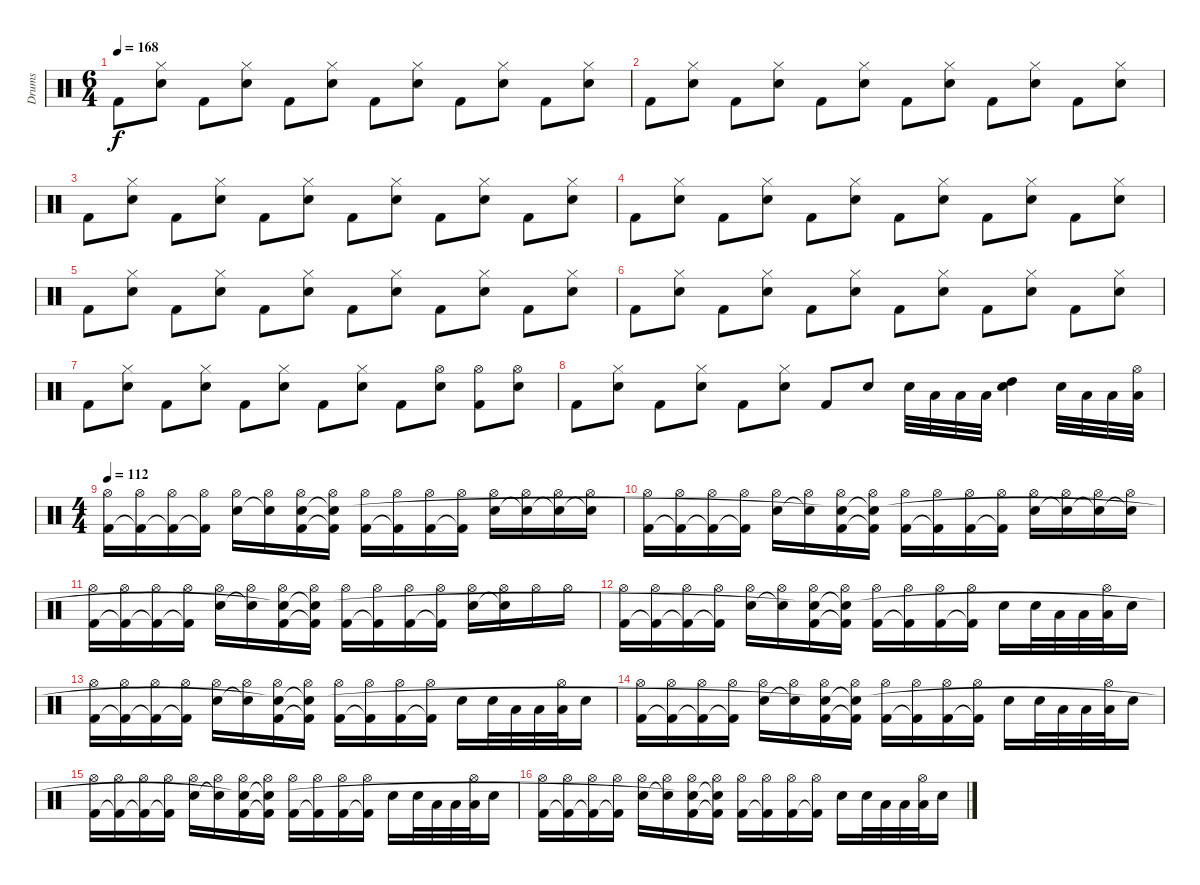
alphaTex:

\track ("Drums" "Drums") {instrument percussion}
\staff {score}
\articulation defaults
\ts (6 4)
\tempo 168
\clef neutral
\ks c "Kick (hit) 2".8{dy f}
("Hi-Hat (closed)" "Snare (hit) 2").8 "Kick (hit) 2".8 ("Hi-Hat (closed)" "Snare (hit) 2").8 "Kick (hit) 2".8 ("Hi-Hat (closed)" "Snare (hit) 2").8 "Kick (hit) 2".8 ("Hi-Hat (closed)" "Snare (hit) 2").8 "Kick (hit) 2".8 ("Hi-Hat (closed)" "Snare (hit) 2").8 "Kick (hit) 2".8 ("Hi-Hat (closed)" "Snare (hit) 2").8 |
"Kick (hit) 2".8 ("Hi-Hat (closed)" "Snare (hit) 2").8 "Kick (hit) 2".8 ("Hi-Hat (closed)" "Snare (hit) 2").8 "Kick (hit) 2".8 ("Hi-Hat (closed)" "Snare (hit) 2").8 "Kick (hit) 2".8 ("Hi-Hat (closed)" "Snare (hit) 2").8 "Kick (hit) 2".8 ("Hi-Hat (closed)" "Snare (hit) 2").8 "Kick (hit) 2".8 ("Hi-Hat (closed)" "Snare (hit) 2").8 |
"Kick (hit) 2".8 ("Hi-Hat (closed)" "Snare (hit) 2").8 "Kick (hit) 2".8 ("Hi-Hat (closed)" "Snare (hit) 2").8 "Kick (hit) 2".8 ("Hi-Hat (closed)" "Snare (hit) 2").8 "Kick (hit) 2".8 ("Hi-Hat (closed)" "Snare (hit) 2").8 "Kick (hit) 2".8 ("Hi-Hat (closed)" "Snare (hit) 2").8 "Kick (hit) 2".8 ("Hi-Hat (closed)" "Snare (hit) 2").8 |
"Kick (hit) 2".8 ("Hi-Hat (closed)" "Snare (hit) 2").8 "Kick (hit) 2".8 ("Hi-Hat (closed)" "Snare (hit) 2").8 "Kick (hit) 2".8 ("Hi-Hat (closed)" "Snare (hit) 2").8 "Kick (hit) 2".8 ("Hi-Hat (closed)" "Snare (hit) 2").8 "Kick (hit) 2".8 ("Hi-Hat (closed)" "Snare (hit) 2").8 "Kick (hit) 2".8 ("Hi-Hat (closed)" "Snare (hit) 2").8 |
"Kick (hit) 2".8 ("Hi-Hat (closed)" "Snare (hit) 2").8 "Kick (hit) 2".8 ("Hi-Hat (closed)" "Snare (hit) 2").8 "Kick (hit) 2".8 ("Hi-Hat (closed)" "Snare (hit) 2").8 "Kick (hit) 2".8 ("Hi-Hat (closed)" "Snare (hit) 2").8 "Kick (hit) 2".8 ("Hi-Hat (closed)" "Snare (hit) 2").8 "Kick (hit) 2".8 ("Hi-Hat (closed)" "Snare (hit) 2").8 |
"Kick (hit) 2".8 ("Hi-Hat (closed)" "Snare (hit) 2").8 "Kick (hit) 2".8 ("Hi-Hat (closed)" "Snare (hit) 2").8 "Kick (hit) 2".8 ("Hi-Hat (closed)" "Snare (hit) 2").8 "Kick (hit) 2".8 ("Hi-Hat (closed)" "Snare (hit) 2").8 "Kick (hit) 2".8 ("Hi-Hat (closed)" "Snare (hit) 2").8 "Kick (hit) 2".8 ("Hi-Hat (closed)" "Snare (hit) 2").8 |
"Kick (hit) 2".8 ("Hi-Hat (closed)" "Snare (hit) 2").8 "Kick (hit) 2".8 ("Hi-Hat (closed)" "Snare (hit) 2").8 "Kick (hit) 2".8 ("Hi-Hat (closed)" "Snare (hit) 2").8 "Kick (hit) 2".8 ("Hi-Hat (closed)" "Snare (hit) 2").8 "Kick (hit) 2".8 ("Hi-Hat (open)" "Snare (hit) 2").8 ("Hi-Hat (open)" "Kick (hit) 2").8 ("Hi-Hat (open)" "Snare (hit) 2").8 |
"Kick (hit) 2".8 ("Hi-Hat (closed)" "Snare (hit) 2").8 "Kick (hit) 2".8 ("Hi-Hat (closed)" "Snare (hit) 2").8 "Kick (hit) 2".8 ("Hi-Hat (closed)" "Snare (hit) 2").8 "Kick (hit) 2".8 "Snare (hit) 2".8 "Snare (hit) 2".32 "Low Tom (hit)".32 "Low Floor Tom (hit)".32 "Low Floor Tom (hit)".32 ("High Tom (hit)" "Snare (hit) 2").4 "Snare (hit) 2".32 "Low Tom (hit)".32 "Low Floor Tom (hit)".32 ("Hi-Hat (open)" "Low Floor Tom (hit)").32 |
\ts (4 4)
\tempo 112
("Hi-Hat (open)" "Kick (hit) 2").16 ("Hi-Hat (open)" "Kick (hit) 2"{t}).16 ("Hi-Hat (open)" "Kick (hit) 2"{t}).16 ("Hi-Hat (open)" "Kick (hit) 2"{t}).16 ("Hi-Hat (open)" "Snare (hit) 2").16 ("Hi-Hat (open)" "Snare (hit) 2"{t}).16 ("Hi-Hat (open)" "Kick (hit) 2" "Snare (hit) 2").16 ("Hi-Hat (open)" "Kick (hit) 2"{t} "Snare (hit) 2"{t}).16 ("Hi-Hat (open)" "Kick (hit) 2").16 ("Hi-Hat (open)" "Kick (hit) 2"{t}).16 ("Hi-Hat (open)" "Kick (hit) 2").16 ("Hi-Hat (open)" "Kick (hit) 2"{t}).16 ("Hi-Hat (open)" "Snare (hit) 2").16 ("Hi-Hat (open)" "Snare (hit) 2"{t}).16 ("Hi-Hat (open)" "Snare (hit) 2"{t}).16 ("Hi-Hat (open)" "Snare (hit) 2"{t}).16 |
("Hi-Hat (open)" "Kick (hit) 2").16 ("Hi-Hat (open)" "Kick (hit) 2"{t}).16 ("Hi-Hat (open)" "Kick (hit) 2"{t}).16 ("Hi-Hat (open)" "Kick (hit) 2"{t}).16 ("Hi-Hat (open)" "Snare (hit) 2").16 ("Hi-Hat (open)" "Snare (hit) 2"{t}).16 ("Hi-Hat (open)" "Kick (hit) 2" "Snare (hit) 2"{t}).16 ("Hi-Hat (open)" "Kick (hit) 2"{t} "Snare (hit) 2"{t}).16 ("Hi-Hat (open)" "Kick (hit) 2").16 ("Hi-Hat (open)" "Kick (hit) 2"{t}).16 ("Hi-Hat (open)" "Kick (hit) 2").16 ("Hi-Hat (open)" "Kick (hit) 2"{t}).16 ("Hi-Hat (open)" "Snare (hit) 2").16 ("Hi-Hat (open)" "Snare (hit) 2"{t}).16 ("Hi-Hat (open)" "Snare (hit) 2"{t}).16 ("Hi-Hat (open)" "Snare (hit) 2"{t}).16 |
("Hi-Hat (open)" "Kick (hit) 2").16 ("Hi-Hat (open)" "Kick (hit) 2"{t}).16 ("Hi-Hat (open)" "Kick (hit) 2"{t}).16 ("Hi-Hat (open)" "Kick (hit) 2"{t}).16 ("Hi-Hat (open)" "Snare (hit) 2").16 ("Hi-Hat (open)" "Snare (hit) 2"{t}).16 ("Hi-Hat (open)" "Kick (hit) 2" "Snare (hit) 2"{t}).16 ("Hi-Hat (open)" "Kick (hit) 2"{t} "Snare (hit) 2"{t}).16 ("Hi-Hat (open)" "Kick (hit) 2").16 ("Hi-Hat (open)" "Kick (hit) 2"{t}).16 ("Hi-Hat (open)" "Kick (hit) 2").16 ("Hi-Hat (open)" "Kick (hit) 2"{t}).16 ("Hi-Hat (open)" "Snare (hit) 2").16 ("Hi-Hat (open)" "Snare (hit) 2"{t}).16 "Hi-Hat (open)".16 "Hi-Hat (open)".16 |
("Hi-Hat (open)" "Kick (hit) 2").16 ("Hi-Hat (open)" "Kick (hit) 2"{t}).16 ("Hi-Hat (open)" "Kick (hit) 2"{t}).16 ("Hi-Hat (open)" "Kick (hit) 2"{t}).16 ("Hi-Hat (open)" "Snare (hit) 2").16 ("Hi-Hat (open)" "Snare (hit) 2"{t}).16 ("Hi-Hat (open)" "Kick (hit) 2" "Snare (hit) 2"{t}).16 ("Hi-Hat (open)" "Kick (hit) 2"{t} "Snare (hit) 2"{t}).16 ("Hi-Hat (open)" "Kick (hit) 2").16 ("Hi-Hat (open)" "Kick (hit) 2"{t}).16 ("Hi-Hat (open)" "Kick (hit) 2").16 ("Hi-Hat (open)" "Kick (hit) 2"{t}).16 "Snare (hit) 2".16 "Snare (hit) 2".32 "Low Tom (hit)".32 "Low Floor Tom (hit)".32 ("Hi-Hat (open)" "Low Floor Tom (hit)").32 "Snare (hit) 2".16 |
("Hi-Hat (open)" "Kick (hit) 2").16 ("Hi-Hat (open)" "Kick (hit) 2"{t}).16 ("Hi-Hat (open)" "Kick (hit) 2"{t}).16 ("Hi-Hat (open)" "Kick (hit) 2"{t}).16 ("Hi-Hat (open)" "Snare (hit) 2").16 ("Hi-Hat (open)" "Snare (hit) 2"{t}).16 ("Hi-Hat (open)" "Kick (hit) 2" "Snare (hit) 2"{t}).16 ("Hi-Hat (open)" "Kick (hit) 2"{t} "Snare (hit) 2"{t}).16 ("Hi-Hat (open)" "Kick (hit) 2").16 ("Hi-Hat (open)" "Kick (hit) 2"{t}).16 ("Hi-Hat (open)" "Kick (hit) 2").16 ("Hi-Hat (open)" "Kick (hit) 2"{t}).16 "Snare (hit) 2".16 "Snare (hit) 2".32 "Low Tom (hit)".32 "Low Floor Tom (hit)".32 ("Hi-Hat (open)" "Low Floor Tom (hit)").32 "Snare (hit) 2".16 |
("Hi-Hat (open)" "Kick (hit) 2").16 ("Hi-Hat (open)" "Kick (hit) 2"{t}).16 ("Hi-Hat (open)" "Kick (hit) 2"{t}).16 ("Hi-Hat (open)" "Kick (hit) 2"{t}).16 ("Hi-Hat (open)" "Snare (hit) 2").16 ("Hi-Hat (open)" "Snare (hit) 2"{t}).16 ("Hi-Hat (open)" "Kick (hit) 2" "Snare (hit) 2"{t}).16 ("Hi-Hat (open)" "Kick (hit) 2"{t} "Snare (hit) 2"{t}).16 ("Hi-Hat (open)" "Kick (hit) 2").16 ("Hi-Hat (open)" "Kick (hit) 2"{t}).16 ("Hi-Hat (open)" "Kick (hit) 2").16 ("Hi-Hat (open)" "Kick (hit) 2"{t}).16 "Snare (hit) 2".16 "Snare (hit) 2".32 "Low Tom (hit)".32 "Low Floor Tom (hit)".32 ("Hi-Hat (open)" "Low Floor Tom (hit)").32 "Snare (hit) 2".16 |
("Hi-Hat (open)" "Kick (hit) 2").16 ("Hi-Hat (open)" "Kick (hit) 2"{t}).16 ("Hi-Hat (open)" "Kick (hit) 2"{t}).16 ("Hi-Hat (open)" "Kick (hit) 2"{t}).16 ("Hi-Hat (open)" "Snare (hit) 2").16 ("Hi-Hat (open)" "Snare (hit) 2"{t}).16 ("Hi-Hat (open)" "Kick (hit) 2" "Snare (hit) 2"{t}).16 ("Hi-Hat (open)" "Kick (hit) 2"{t} "Snare (hit) 2"{t}).16 ("Hi-Hat (open)" "Kick (hit) 2").16 ("Hi-Hat (open)" "Kick (hit) 2"{t}).16 ("Hi-Hat (open)" "Kick (hit) 2").16 ("Hi-Hat (open)" "Kick (hit) 2"{t}).16 "Snare (hit) 2".16 "Snare (hit) 2".32 "Low Tom (hit)".32 "Low Floor Tom (hit)".32 ("Hi-Hat (open)" "Low Floor Tom (hit)").32 "Snare (hit) 2".16 |
("Hi-Hat (open)" "Kick (hit) 2").16 ("Hi-Hat (open)" "Kick (hit) 2"{t}).16 ("Hi-Hat (open)" "Kick (hit) 2"{t}).16 ("Hi-Hat (open)" "Kick (hit) 2"{t}).16 ("Hi-Hat (open)" "Snare (hit) 2").16 ("Hi-Hat (open)" "Snare (hit) 2"{t}).16 ("Hi-Hat (open)" "Kick (hit) 2" "Snare (hit) 2"{t}).16 ("Hi-Hat (open)" "Kick (hit) 2"{t} "Snare (hit) 2"{t}).16 ("Hi-Hat (open)" "Kick (hit) 2").16 ("Hi-Hat (open)" "Kick (hit) 2"{t}).16 ("Hi-Hat (open)" "Kick (hit) 2").16 ("Hi-Hat (open)" "Kick (hit) 2"{t}).16 "Snare (hit) 2".16 "Snare (hit) 2".32 "Low Tom (hit)".32 "Low Floor Tom (hit)".32 ("Hi-Hat (open)" "Low Floor Tom (hit)").32 "Snare (hit) 2".16
